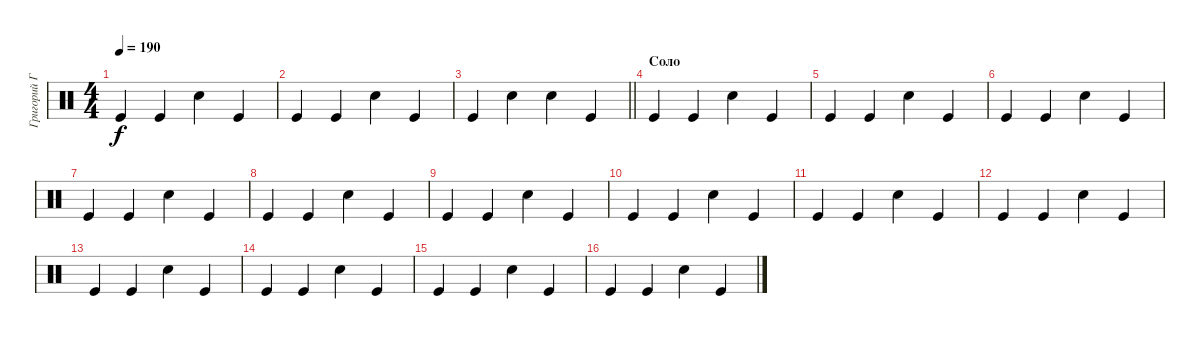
\track ("Григорий Габерман" "Григорий Г") {instrument percussion}
\staff {score}
\articulation defaults
\ts (4 4)
\tempo 190
\clef neutral
\ks c "Kick (hit)".4{dy f} "Kick (hit)".4 "Snare (hit) 2".4 "Kick (hit)".4
|
"Kick (hit)".4 "Kick (hit)".4 "Snare (hit) 2".4 "Kick (hit)".4 |
\barLineRight lightlight "Kick (hit)".4 "Snare (hit) 2".4 "Snare (hit) 2".4 "Kick (hit)".4
|
\section ("" "Соло")
"Kick (hit)".4 "Kick (hit)".4 "Snare (hit) 2".4 "Kick (hit)".4 |
"Kick (hit)".4 "Kick (hit)".4 "Snare (hit) 2".4 "Kick (hit)".4 |
"Kick (hit)".4 "Kick (hit)".4 "Snare (hit) 2".4 "Kick (hit)".4 |
"Kick (hit)".4 "Kick (hit)".4 "Snare (hit) 2".4 "Kick (hit)".4 |
"Kick (hit)".4 "Kick (hit)".4 "Snare (hit) 2".4 "Kick (hit)".4 |
"Kick (hit)".4 "Kick (hit)".4 "Snare (hit) 2".4 "Kick (hit)".4 |
"Kick (hit)".4 "Kick (hit)".4 "Snare (hit) 2".4 "Kick (hit)".4 |
"Kick (hit)".4 "Kick (hit)".4 "Snare (hit) 2".4 "Kick (hit)".4 |
"Kick (hit)".4 "Kick (hit)".4 "Snare (hit) 2".4 "Kick (hit)".4 |
"Kick (hit)".4 "Kick (hit)".4 "Snare (hit) 2".4 "Kick (hit)".4 |
"Kick (hit)".4 "Kick (hit)".4 "Snare (hit) 2".4 "Kick (hit)".4 |
"Kick (hit)".4 "Kick (hit)".4 "Snare (hit) 2".4 "Kick (hit)".4 |
"Kick (hit)".4 "Kick (hit)".4 "Snare (hit) 2".4 "Kick (hit)".4
